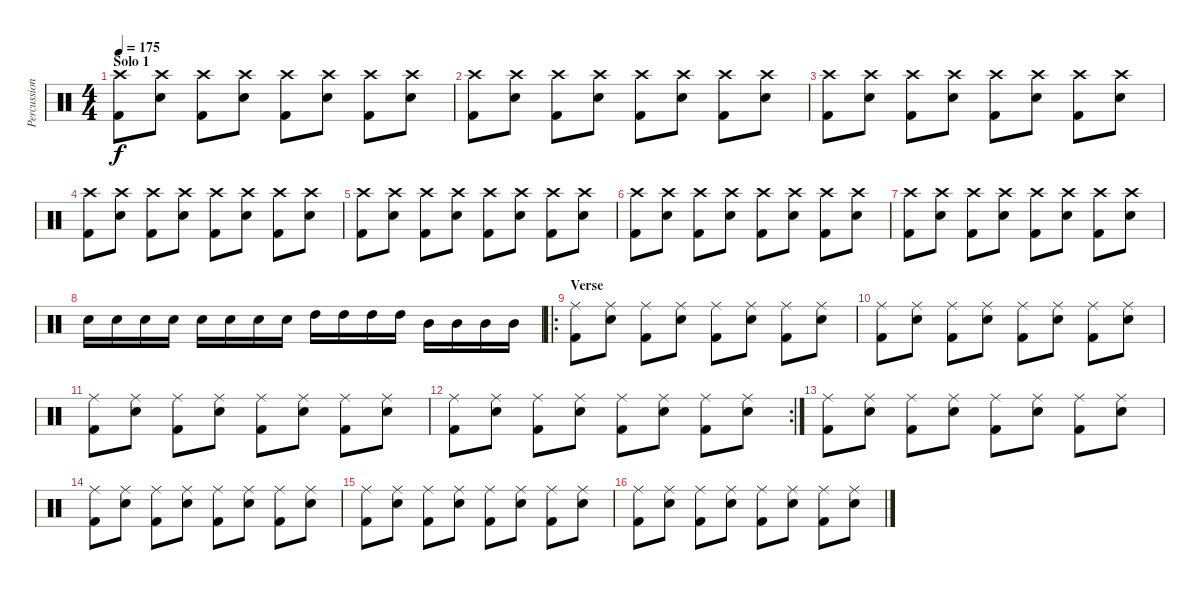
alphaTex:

\track ("Percussion" "Percussion") {instrument percussion}
\staff {score}
\articulation defaults
\ts (4 4)
\section ("" "Solo 1")
\tempo 175
\clef neutral
\ks c
("Crash high (hit)" "Kick (hit) 2").8{dy f} ("Crash high (hit)" "Snare (hit) 2").8 ("Crash high (hit)" "Kick (hit) 2").8 ("Crash high (hit)" "Snare (hit) 2").8 ("Crash high (hit)" "Kick (hit) 2").8 ("Crash high (hit)" "Snare (hit) 2").8 ("Crash high (hit)" "Kick (hit) 2").8 ("Crash high (hit)" "Snare (hit) 2").8 |
("Crash high (hit)" "Kick (hit) 2").8 ("Crash high (hit)" "Snare (hit) 2").8 ("Crash high (hit)" "Kick (hit) 2").8 ("Crash high (hit)" "Snare (hit) 2").8 ("Crash high (hit)" "Kick (hit) 2").8 ("Crash high (hit)" "Snare (hit) 2").8 ("Crash high (hit)" "Kick (hit) 2").8 ("Crash high (hit)" "Snare (hit) 2").8 |
("Crash high (hit)" "Kick (hit) 2").8 ("Crash high (hit)" "Snare (hit) 2").8 ("Crash high (hit)" "Kick (hit) 2").8 ("Crash high (hit)" "Snare (hit) 2").8 ("Crash high (hit)" "Kick (hit) 2").8 ("Crash high (hit)" "Snare (hit) 2").8 ("Crash high (hit)" "Kick (hit) 2").8 ("Crash high (hit)" "Snare (hit) 2").8 |
("Crash high (hit)" "Kick (hit) 2").8 ("Crash high (hit)" "Snare (hit) 2").8 ("Crash high (hit)" "Kick (hit) 2").8 ("Crash high (hit)" "Snare (hit) 2").8 ("Crash high (hit)" "Kick (hit) 2").8 ("Crash high (hit)" "Snare (hit) 2").8 ("Crash high (hit)" "Kick (hit) 2").8 ("Crash high (hit)" "Snare (hit) 2").8 |
("Crash high (hit)" "Kick (hit) 2").8 ("Crash high (hit)" "Snare (hit) 2").8 ("Crash high (hit)" "Kick (hit) 2").8 ("Crash high (hit)" "Snare (hit) 2").8 ("Crash high (hit)" "Kick (hit) 2").8 ("Crash high (hit)" "Snare (hit) 2").8 ("Crash high (hit)" "Kick (hit) 2").8 ("Crash high (hit)" "Snare (hit) 2").8 |
("Crash high (hit)" "Kick (hit) 2").8 ("Crash high (hit)" "Snare (hit) 2").8 ("Crash high (hit)" "Kick (hit) 2").8 ("Crash high (hit)" "Snare (hit) 2").8 ("Crash high (hit)" "Kick (hit) 2").8 ("Crash high (hit)" "Snare (hit) 2").8 ("Crash high (hit)" "Kick (hit) 2").8 ("Crash high (hit)" "Snare (hit) 2").8 |
("Crash high (hit)" "Kick (hit) 2").8 ("Crash high (hit)" "Snare (hit) 2").8 ("Crash high (hit)" "Kick (hit) 2").8 ("Crash high (hit)" "Snare (hit) 2").8 ("Crash high (hit)" "Kick (hit) 2").8 ("Crash high (hit)" "Snare (hit) 2").8 ("Crash high (hit)" "Kick (hit) 2").8 ("Crash high (hit)" "Snare (hit) 2").8 |
"Snare (hit) 2".16 "Snare (hit) 2".16 "Snare (hit) 2".16 "Snare (hit) 2".16 "Snare (hit) 2".16 "Snare (hit) 2".16 "Snare (hit) 2".16 "Snare (hit) 2".16 "High Tom (hit)".16 "High Tom (hit)".16 "High Tom (hit)".16 "High Tom (hit)".16 "Mid Tom (hit)".16 "Mid Tom (hit)".16 "Mid Tom (hit)".16 "Mid Tom (hit)".16 |
\ro
\section ("" "Verse")
("Ride (middle)" "Kick (hit) 2").8 ("Ride (middle)" "Snare (hit) 2").8 ("Ride (middle)" "Kick (hit) 2").8 ("Ride (middle)" "Snare (hit) 2").8 ("Ride (middle)" "Kick (hit) 2").8 ("Ride (middle)" "Snare (hit) 2").8 ("Ride (middle)" "Kick (hit) 2").8 ("Ride (middle)" "Snare (hit) 2").8 |
("Ride (middle)" "Kick (hit) 2").8 ("Ride (middle)" "Snare (hit) 2").8 ("Ride (middle)" "Kick (hit) 2").8 ("Ride (middle)" "Snare (hit) 2").8 ("Ride (middle)" "Kick (hit) 2").8 ("Ride (middle)" "Snare (hit) 2").8 ("Ride (middle)" "Kick (hit) 2").8 ("Ride (middle)" "Snare (hit) 2").8 |
("Ride (middle)" "Kick (hit) 2").8 ("Ride (middle)" "Snare (hit) 2").8 ("Ride (middle)" "Kick (hit) 2").8 ("Ride (middle)" "Snare (hit) 2").8 ("Ride (middle)" "Kick (hit) 2").8 ("Ride (middle)" "Snare (hit) 2").8 ("Ride (middle)" "Kick (hit) 2").8 ("Ride (middle)" "Snare (hit) 2").8 |
\rc 2
("Ride (middle)" "Kick (hit) 2").8 ("Ride (middle)" "Snare (hit) 2").8 ("Ride (middle)" "Kick (hit) 2").8 ("Ride (middle)" "Snare (hit) 2").8 ("Ride (middle)" "Kick (hit) 2").8 ("Ride (middle)" "Snare (hit) 2").8 ("Ride (middle)" "Kick (hit) 2").8 ("Ride (middle)" "Snare (hit) 2").8 |
("Ride (middle)" "Kick (hit) 2").8 ("Ride (middle)" "Snare (hit) 2").8 ("Ride (middle)" "Kick (hit) 2").8 ("Ride (middle)" "Snare (hit) 2").8 ("Ride (middle)" "Kick (hit) 2").8 ("Ride (middle)" "Snare (hit) 2").8 ("Ride (middle)" "Kick (hit) 2").8 ("Ride (middle)" "Snare (hit) 2").8 |
("Ride (middle)" "Kick (hit) 2").8 ("Ride (middle)" "Snare (hit) 2").8 ("Ride (middle)" "Kick (hit) 2").8 ("Ride (middle)" "Snare (hit) 2").8 ("Ride (middle)" "Kick (hit) 2").8 ("Ride (middle)" "Snare (hit) 2").8 ("Ride (middle)" "Kick (hit) 2").8 ("Ride (middle)" "Snare (hit) 2").8 |
("Ride (middle)" "Kick (hit) 2").8 ("Ride (middle)" "Snare (hit) 2").8 ("Ride (middle)" "Kick (hit) 2").8 ("Ride (middle)" "Snare (hit) 2").8 ("Ride (middle)" "Kick (hit) 2").8 ("Ride (middle)" "Snare (hit) 2").8 ("Ride (middle)" "Kick (hit) 2").8 ("Ride (middle)" "Snare (hit) 2").8 |
("Ride (middle)" "Kick (hit) 2").8 ("Ride (middle)" "Snare (hit) 2").8 ("Ride (middle)" "Kick (hit) 2").8 ("Ride (middle)" "Snare (hit) 2").8 ("Ride (middle)" "Kick (hit) 2").8 ("Ride (middle)" "Snare (hit) 2").8 ("Ride (middle)" "Kick (hit) 2").8 ("Ride (middle)" "Snare (hit) 2").8
